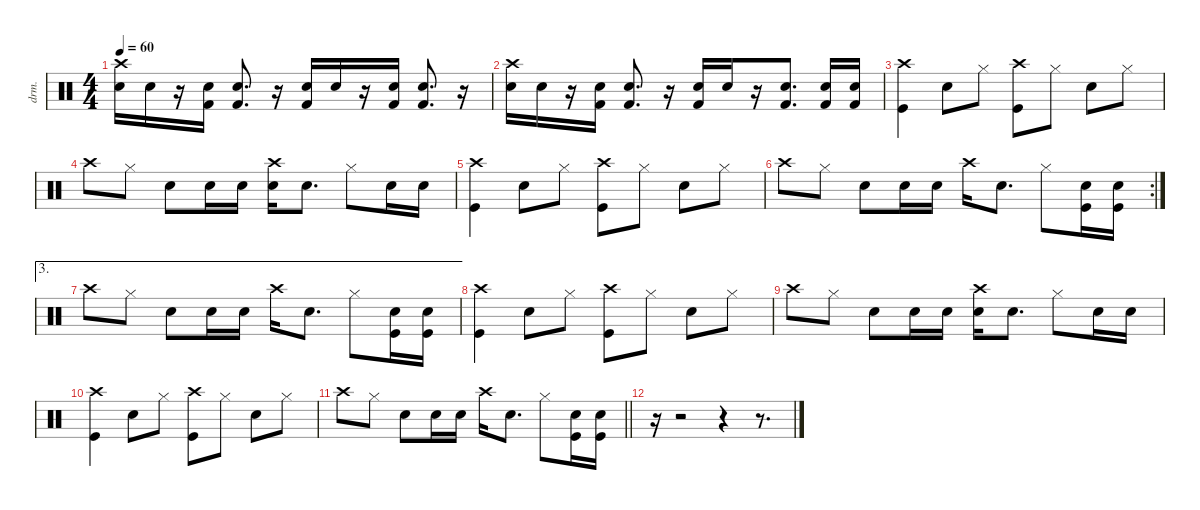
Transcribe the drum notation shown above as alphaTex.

\defaultSystemsLayout 4
\hideDynamics
\bracketExtendMode nobrackets
\otherSystemsTrackNameOrientation horizontal
\track ("Drums" "drm.") {instrument percussion}
\staff {score}
\articulation defaults
\ts (4 4)
\tempo 60
\clef neutral
\ks c
("Snare (hit) 2" "Crash high (hit)").16{dy f} "Snare (hit) 2".16 r.16 ("Snare (hit) 2" "Kick (hit) 2").16 ("Snare (hit) 2" "Kick (hit) 2").8{d} r.16 ("Snare (hit) 2" "Kick (hit) 2").16 "Snare (hit) 2".16 r.16 ("Snare (hit) 2" "Kick (hit) 2").16 ("Snare (hit) 2" "Kick (hit) 2").8{d} r.16 |
("Snare (hit) 2" "Crash high (hit)").16 "Snare (hit) 2".16 r.16 ("Snare (hit) 2" "Kick (hit) 2").16 ("Snare (hit) 2" "Kick (hit) 2").8{d} r.16 ("Snare (hit) 2" "Kick (hit) 2").16 "Snare (hit) 2".16 r.16 ("Snare (hit) 2" "Kick (hit) 2").8{d} ("Snare (hit) 2" "Kick (hit) 2").16 ("Snare (hit) 2" "Kick (hit) 2").16 |
("Crash high (hit)" "Kick (hit)").4 "Snare (hit) 2".8{dy mf} "Hi-Hat (closed)".8{dy p} ("Crash high (hit)" "Kick (hit)").8{dy f} "Hi-Hat (closed)".8{dy p} "Snare (hit) 2".8{dy f} "Hi-Hat (closed)".8{dy p} |
"Crash high (hit)".8{dy f} "Hi-Hat (closed)".8 "Snare (hit) 2".8 "Snare (hit) 2".16 "Snare (hit) 2".16 ("Snare (hit) 2" "Crash high (hit)").16 "Snare (hit) 2".8{d} "Hi-Hat (closed)".8 "Snare (hit) 2".16 "Snare (hit) 2".16 |
("Crash high (hit)" "Kick (hit)").4 "Snare (hit) 2".8{dy mf} "Hi-Hat (closed)".8{dy p} ("Crash high (hit)" "Kick (hit)").8{dy f} "Hi-Hat (closed)".8{dy p} "Snare (hit) 2".8{dy f} "Hi-Hat (closed)".8{dy p} |
\rc 2 "Crash high (hit)".8{dy f} "Hi-Hat (closed)".8 "Snare (hit) 2".8 "Snare (hit) 2".16 "Snare (hit) 2".16 "Crash high (hit)".16 "Snare (hit) 2".8{d} "Hi-Hat (closed)".8
("Kick (hit)" "Snare (hit) 2").16 ("Kick (hit)" "Snare (hit) 2").16 |
\ae 3 "Crash high (hit)".8 "Hi-Hat (closed)".8 "Snare (hit) 2".8 "Snare (hit) 2".16 "Snare (hit) 2".16 "Crash high (hit)".16 "Snare (hit) 2".8{d} "Hi-Hat (closed)".8
("Kick (hit)" "Snare (hit) 2").16 ("Kick (hit)" "Snare (hit) 2").16 |
("Crash high (hit)" "Kick (hit)").4 "Snare (hit) 2".8{dy mf} "Hi-Hat (closed)".8{dy p} ("Crash high (hit)" "Kick (hit)").8{dy f} "Hi-Hat (closed)".8{dy p} "Snare (hit) 2".8{dy f} "Hi-Hat (closed)".8{dy p} |
"Crash high (hit)".8{dy f} "Hi-Hat (closed)".8 "Snare (hit) 2".8 "Snare (hit) 2".16 "Snare (hit) 2".16 ("Snare (hit) 2" "Crash high (hit)").16 "Snare (hit) 2".8{d} "Hi-Hat (closed)".8 "Snare (hit) 2".16 "Snare (hit) 2".16 |
("Crash high (hit)" "Kick (hit)").4 "Snare (hit) 2".8{dy mf} "Hi-Hat (closed)".8{dy p} ("Crash high (hit)" "Kick (hit)").8{dy f} "Hi-Hat (closed)".8{dy p} "Snare (hit) 2".8{dy f} "Hi-Hat (closed)".8{dy p} |
\barLineRight lightlight "Crash high (hit)".8{dy f} "Hi-Hat (closed)".8 "Snare (hit) 2".8 "Snare (hit) 2".16 "Snare (hit) 2".16 "Crash high (hit)".16 "Snare (hit) 2".8{d} "Hi-Hat (closed)".8
("Kick (hit)" "Snare (hit) 2").16 ("Kick (hit)" "Snare (hit) 2").16 |
r.16 r.2 r.4 r.8{d}
